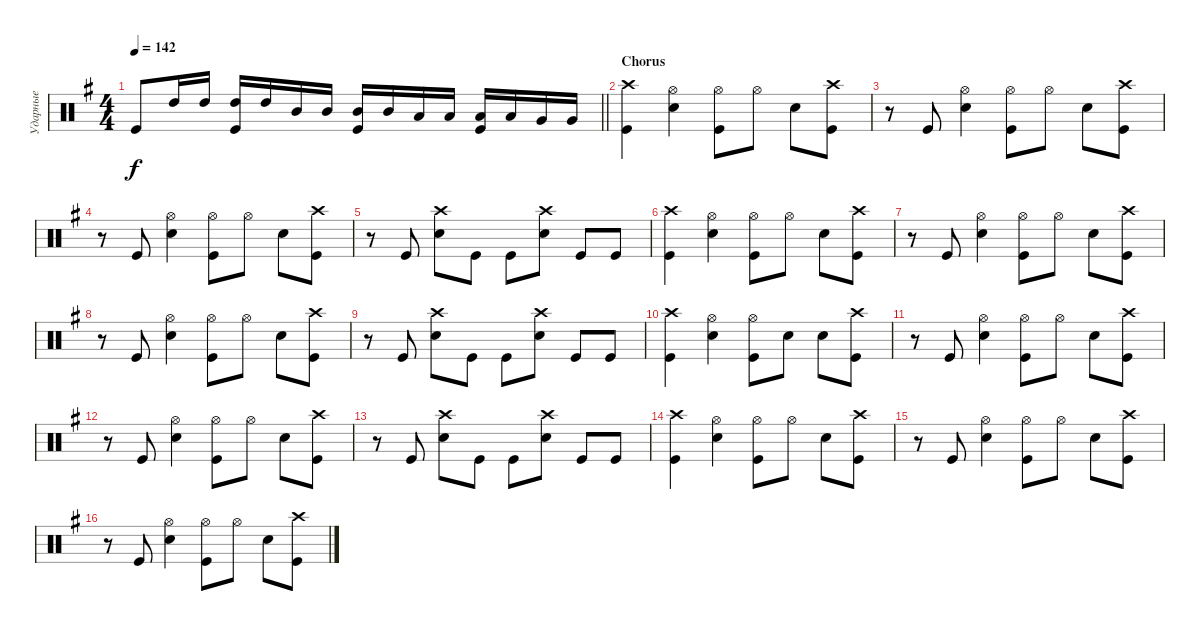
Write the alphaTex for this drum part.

\track ("Ударные" "Ударные") {instrument percussion}
\staff {score}
\articulation defaults
\ts (4 4)
\tempo 142
\clef neutral
\barLineRight lightlight
\ks eminor "Kick (hit)".8{dy f} "High Tom (hit)".16 "High Tom (hit)".16
("High Tom (hit)" "Kick (hit)").16 "High Tom (hit)".16 "Mid Tom (hit)".16 "Mid Tom (hit)".16 ("Mid Tom (hit)" "Kick (hit)").16 "Mid Tom (hit)".16 "Low Tom (hit)".16 "Low Tom (hit)".16 ("Kick (hit)" "Low Tom (hit)").16 "Low Tom (hit)".16 "Very Low Tom (hit)".16 "Very Low Tom (hit)".16 |
\section ("" "Chorus")
("Kick (hit)" "Crash high (hit)").4 ("Snare (hit) 2" "Hi-Hat (open)").4 ("Kick (hit)" "Hi-Hat (open)").8 "Hi-Hat (open)".8 "Snare (hit) 2".8 ("Kick (hit)" "Crash high (hit)").8 |
r.8 "Kick (hit)".8 ("Snare (hit) 2" "Hi-Hat (open)").4 ("Kick (hit)" "Hi-Hat (open)").8 "Hi-Hat (open)".8 "Snare (hit) 2".8 ("Kick (hit)" "Crash high (hit)").8 |
r.8 "Kick (hit)".8 ("Snare (hit) 2" "Hi-Hat (open)").4 ("Kick (hit)" "Hi-Hat (open)").8 "Hi-Hat (open)".8 "Snare (hit) 2".8 ("Kick (hit)" "Crash high (hit)").8 |
r.8 "Kick (hit)".8 ("Snare (hit) 2" "Crash high (hit)").8 "Kick (hit)".8 "Kick (hit)".8 ("Snare (hit) 2" "Crash high (hit)").8 "Kick (hit)".8 "Kick (hit)".8 |
("Kick (hit)" "Crash high (hit)").4 ("Snare (hit) 2" "Hi-Hat (open)").4 ("Kick (hit)" "Hi-Hat (open)").8 "Hi-Hat (open)".8 "Snare (hit) 2".8 ("Kick (hit)" "Crash high (hit)").8 |
r.8 "Kick (hit)".8 ("Snare (hit) 2" "Hi-Hat (open)").4 ("Kick (hit)" "Hi-Hat (open)").8 "Hi-Hat (open)".8 "Snare (hit) 2".8 ("Kick (hit)" "Crash high (hit)").8 |
r.8 "Kick (hit)".8 ("Snare (hit) 2" "Hi-Hat (open)").4 ("Kick (hit)" "Hi-Hat (open)").8 "Hi-Hat (open)".8 "Snare (hit) 2".8 ("Kick (hit)" "Crash high (hit)").8 |
r.8 "Kick (hit)".8 ("Snare (hit) 2" "Crash high (hit)").8 "Kick (hit)".8 "Kick (hit)".8 ("Snare (hit) 2" "Crash high (hit)").8 "Kick (hit)".8 "Kick (hit)".8 |
("Kick (hit)" "Crash high (hit)").4 ("Snare (hit) 2" "Hi-Hat (open)").4 ("Kick (hit)" "Hi-Hat (open)").8 "Snare (hit) 2".8 "Snare (hit) 2".8 ("Kick (hit)" "Crash high (hit)").8 |
r.8 "Kick (hit)".8 ("Snare (hit) 2" "Hi-Hat (open)").4 ("Kick (hit)" "Hi-Hat (open)").8 "Hi-Hat (open)".8 "Snare (hit) 2".8 ("Kick (hit)" "Crash high (hit)").8 |
r.8 "Kick (hit)".8 ("Snare (hit) 2" "Hi-Hat (open)").4 ("Kick (hit)" "Hi-Hat (open)").8 "Hi-Hat (open)".8 "Snare (hit) 2".8 ("Kick (hit)" "Crash high (hit)").8 |
r.8 "Kick (hit)".8 ("Snare (hit) 2" "Crash high (hit)").8 "Kick (hit)".8 "Kick (hit)".8 ("Snare (hit) 2" "Crash high (hit)").8 "Kick (hit)".8 "Kick (hit)".8 |
("Kick (hit)" "Crash high (hit)").4 ("Snare (hit) 2" "Hi-Hat (open)").4 ("Kick (hit)" "Hi-Hat (open)").8 "Hi-Hat (open)".8 "Snare (hit) 2".8 ("Kick (hit)" "Crash high (hit)").8 |
r.8 "Kick (hit)".8 ("Snare (hit) 2" "Hi-Hat (open)").4 ("Kick (hit)" "Hi-Hat (open)").8 "Hi-Hat (open)".8 "Snare (hit) 2".8 ("Kick (hit)" "Crash high (hit)").8 |
r.8 "Kick (hit)".8 ("Snare (hit) 2" "Hi-Hat (open)").4 ("Kick (hit)" "Hi-Hat (open)").8 "Hi-Hat (open)".8 "Snare (hit) 2".8 ("Kick (hit)" "Crash high (hit)").8
